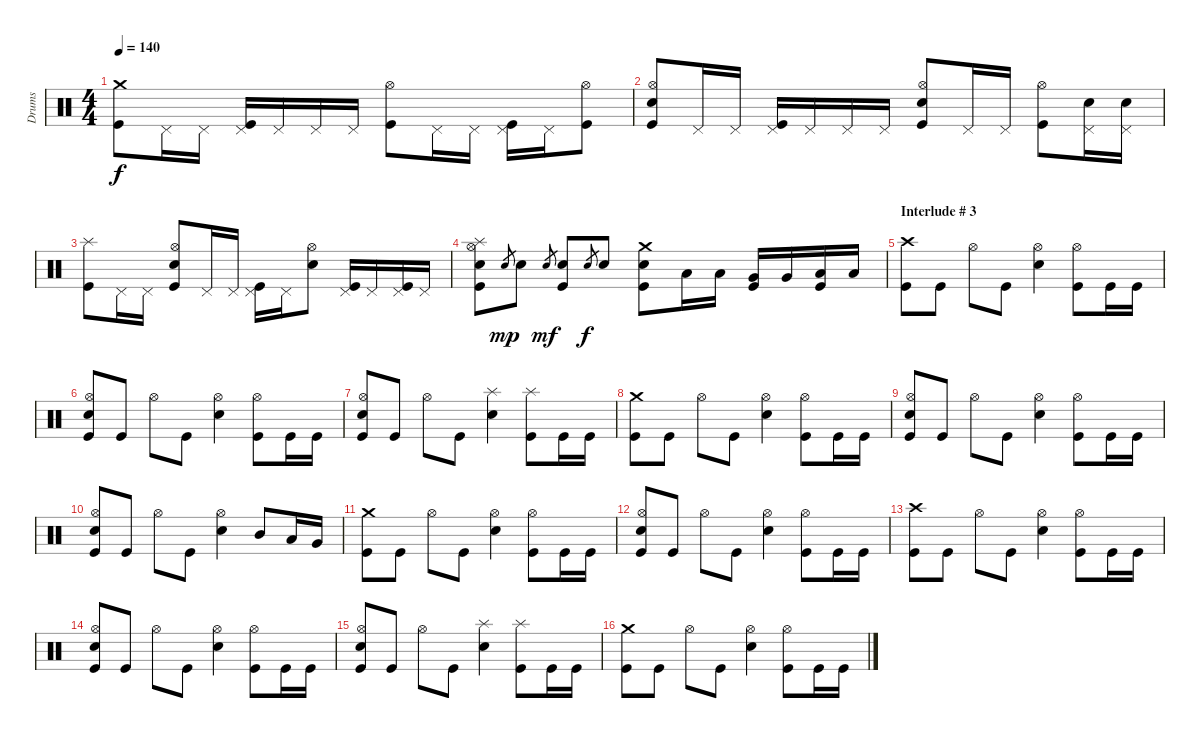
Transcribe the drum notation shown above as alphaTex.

\track ("Drums" "Drums") {instrument percussion}
\staff {score}
\articulation defaults
\ts (4 4)
\tempo 140
\clef neutral
\ks c
("Crash medium (hit)" "Kick (hit)").8{dy f} "Pedal Hi-Hat (hit)".16 "Pedal Hi-Hat (hit)".16 ("Pedal Hi-Hat (hit)" "Kick (hit)").16 "Pedal Hi-Hat (hit)".16 "Pedal Hi-Hat (hit)".16 "Pedal Hi-Hat (hit)".16 ("Hi-Hat (open)" "Kick (hit)").8 "Pedal Hi-Hat (hit)".16 "Pedal Hi-Hat (hit)".16 ("Pedal Hi-Hat (hit)" "Kick (hit)").16 "Pedal Hi-Hat (hit)".16 ("Hi-Hat (open)" "Kick (hit)").8 |
("Hi-Hat (open)" "Electric Snare (hit)" "Kick (hit)").8 "Pedal Hi-Hat (hit)".16 "Pedal Hi-Hat (hit)".16 ("Pedal Hi-Hat (hit)" "Kick (hit)").16 "Pedal Hi-Hat (hit)".16 "Pedal Hi-Hat (hit)".16 "Pedal Hi-Hat (hit)".16 ("Hi-Hat (open)" "Electric Snare (hit)" "Kick (hit)").8 "Pedal Hi-Hat (hit)".16 "Pedal Hi-Hat (hit)".16 ("Hi-Hat (open)" "Kick (hit)").8 ("Pedal Hi-Hat (hit)" "Snare (hit) 2").16 ("Pedal Hi-Hat (hit)" "Snare (hit) 2").16 |
("Splash (hit)" "Kick (hit)").8 "Pedal Hi-Hat (hit)".16 "Pedal Hi-Hat (hit)".16 ("Hi-Hat (open)" "Electric Snare (hit)" "Kick (hit)").8 "Pedal Hi-Hat (hit)".16 "Pedal Hi-Hat (hit)".16 ("Pedal Hi-Hat (hit)" "Kick (hit)").16 "Pedal Hi-Hat (hit)".16 ("Hi-Hat (open)" "Electric Snare (hit)").8 ("Pedal Hi-Hat (hit)" "Kick (hit)").16 "Pedal Hi-Hat (hit)".16 ("Pedal Hi-Hat (hit)" "Kick (hit)").16 "Pedal Hi-Hat (hit)".16 |
("Splash (hit)" "Hi-Hat (open)" "Electric Snare (hit)" "Kick (hit)").8 "Snare (hit) 2".8{gr dy mp} "Snare (hit) 2".8 "Snare (hit) 2".8{gr dy mf} ("Snare (hit) 2" "Kick (hit)").8 "Snare (hit) 2".8{gr dy f} "Snare (hit) 2".8 ("Crash medium (hit)" "Electric Snare (hit)" "Kick (hit)").8 "Low Tom (hit)".16 "Low Tom (hit)".16 ("Very Low Tom (hit)" "Kick (hit)").16 "Very Low Tom (hit)".16 ("Low Floor Tom (hit)" "Kick (hit)").16 "Low Floor Tom (hit)".16 |
\section ("" "Interlude # 3")
("Crash high (hit)" "Kick (hit)").8 "Kick (hit)".8 "Hi-Hat (open)".8 "Kick (hit)".8 ("Hi-Hat (open)" "Electric Snare (hit)").4 ("Hi-Hat (open)" "Kick (hit)").8 "Kick (hit)".16 "Kick (hit)".16 |
("Hi-Hat (open)" "Electric Snare (hit)" "Kick (hit)").8 "Kick (hit)".8 "Hi-Hat (open)".8 "Kick (hit)".8 ("Hi-Hat (open)" "Electric Snare (hit)").4 ("Hi-Hat (open)" "Kick (hit)").8 "Kick (hit)".16 "Kick (hit)".16 |
("Hi-Hat (open)" "Electric Snare (hit)" "Kick (hit)").8 "Kick (hit)".8 "Hi-Hat (open)".8 "Kick (hit)".8 ("Splash (hit)" "Electric Snare (hit)").4 ("Splash (hit)" "Kick (hit)").8 "Kick (hit)".16 "Kick (hit)".16 |
("Crash medium (hit)" "Kick (hit)").8 "Kick (hit)".8 "Hi-Hat (open)".8 "Kick (hit)".8 ("Hi-Hat (open)" "Electric Snare (hit)").4 ("Hi-Hat (open)" "Kick (hit)").8 "Kick (hit)".16 "Kick (hit)".16 |
("Hi-Hat (open)" "Electric Snare (hit)" "Kick (hit)").8 "Kick (hit)".8 "Hi-Hat (open)".8 "Kick (hit)".8 ("Hi-Hat (open)" "Electric Snare (hit)").4 ("Hi-Hat (open)" "Kick (hit)").8 "Kick (hit)".16 "Kick (hit)".16 |
("Hi-Hat (open)" "Electric Snare (hit)" "Kick (hit)").8 "Kick (hit)".8 "Hi-Hat (open)".8 "Kick (hit)".8 ("Hi-Hat (open)" "Electric Snare (hit)").4 "Mid Tom (hit)".8 "Low Tom (hit)".16 "Very Low Tom (hit)".16 |
("Crash medium (hit)" "Kick (hit)").8 "Kick (hit)".8 "Hi-Hat (open)".8 "Kick (hit)".8 ("Hi-Hat (open)" "Electric Snare (hit)").4 ("Hi-Hat (open)" "Kick (hit)").8 "Kick (hit)".16 "Kick (hit)".16 |
("Hi-Hat (open)" "Electric Snare (hit)" "Kick (hit)").8 "Kick (hit)".8 "Hi-Hat (open)".8 "Kick (hit)".8 ("Hi-Hat (open)" "Electric Snare (hit)").4 ("Hi-Hat (open)" "Kick (hit)").8 "Kick (hit)".16 "Kick (hit)".16 |
("Crash high (hit)" "Kick (hit)").8 "Kick (hit)".8 "Hi-Hat (open)".8 "Kick (hit)".8 ("Hi-Hat (open)" "Electric Snare (hit)").4 ("Hi-Hat (open)" "Kick (hit)").8 "Kick (hit)".16 "Kick (hit)".16 |
("Hi-Hat (open)" "Electric Snare (hit)" "Kick (hit)").8 "Kick (hit)".8 "Hi-Hat (open)".8 "Kick (hit)".8 ("Hi-Hat (open)" "Electric Snare (hit)").4 ("Hi-Hat (open)" "Kick (hit)").8 "Kick (hit)".16 "Kick (hit)".16 |
("Hi-Hat (open)" "Electric Snare (hit)" "Kick (hit)").8 "Kick (hit)".8 "Hi-Hat (open)".8 "Kick (hit)".8 ("Splash (hit)" "Electric Snare (hit)").4 ("Splash (hit)" "Kick (hit)").8 "Kick (hit)".16 "Kick (hit)".16 |
("Crash medium (hit)" "Kick (hit)").8 "Kick (hit)".8 "Hi-Hat (open)".8 "Kick (hit)".8 ("Hi-Hat (open)" "Electric Snare (hit)").4 ("Hi-Hat (open)" "Kick (hit)").8 "Kick (hit)".16 "Kick (hit)".16
